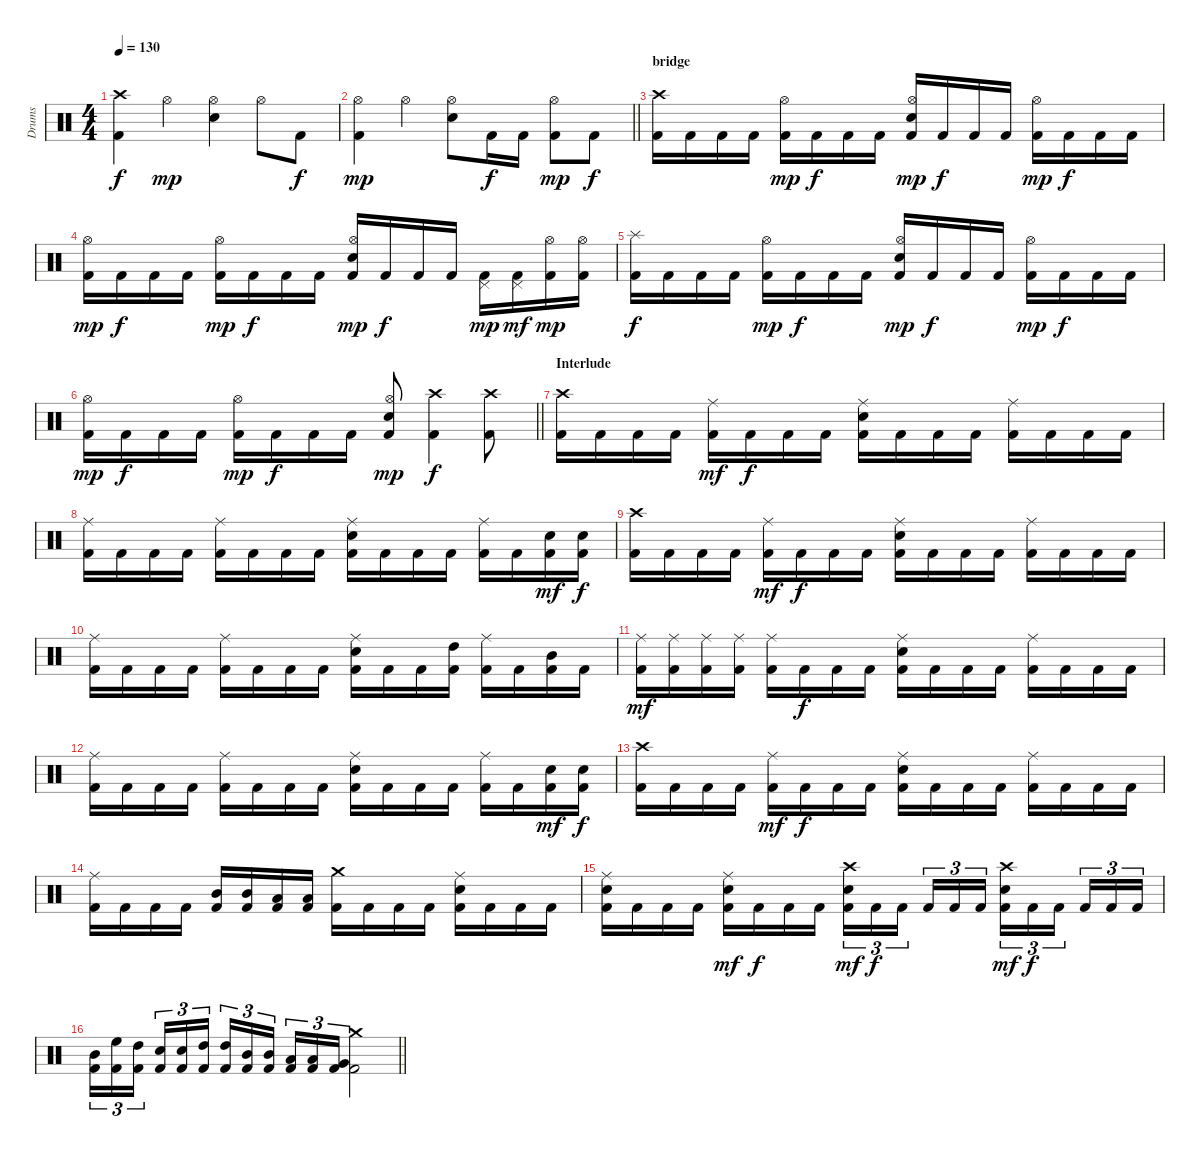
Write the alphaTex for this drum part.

\track ("Drums" "Drums") {instrument percussion}
\staff {score}
\articulation defaults
\ts (4 4)
\tempo 130
\clef neutral
\ks c
("Crash high (hit)" "Kick (hit) 2").4{dy f} "Hi-Hat (open)".4{dy mp} ("Hi-Hat (open)" "Electric Snare (hit)").4 "Hi-Hat (open)".8 "Kick (hit) 2".8{dy f} |
\barLineRight lightlight
("Hi-Hat (open)" "Kick (hit) 2").4{dy mp} "Hi-Hat (open)".4 ("Hi-Hat (open)" "Electric Snare (hit)").8 "Kick (hit) 2".16{dy f} "Kick (hit) 2".16 ("Hi-Hat (open)" "Kick (hit) 2").8{dy mp} "Kick (hit) 2".8{dy f} |
\section ("" "bridge")
("Crash high (hit)" "Kick (hit) 2").16 "Kick (hit) 2".16 "Kick (hit) 2".16 "Kick (hit) 2".16 ("Hi-Hat (open)" "Kick (hit) 2").16{dy mp} "Kick (hit) 2".16{dy f} "Kick (hit) 2".16 "Kick (hit) 2".16 ("Hi-Hat (open)" "Electric Snare (hit)" "Kick (hit) 2").16{dy mp} "Kick (hit) 2".16{dy f} "Kick (hit) 2".16 "Kick (hit) 2".16 ("Hi-Hat (open)" "Kick (hit) 2").16{dy mp} "Kick (hit) 2".16{dy f} "Kick (hit) 2".16 "Kick (hit) 2".16 |
("Hi-Hat (open)" "Kick (hit) 2").16{dy mp} "Kick (hit) 2".16{dy f} "Kick (hit) 2".16 "Kick (hit) 2".16 ("Hi-Hat (open)" "Kick (hit) 2").16{dy mp} "Kick (hit) 2".16{dy f} "Kick (hit) 2".16 "Kick (hit) 2".16 ("Hi-Hat (open)" "Electric Snare (hit)" "Kick (hit) 2").16{dy mp} "Kick (hit) 2".16{dy f} "Kick (hit) 2".16 "Kick (hit) 2".16 ("Pedal Hi-Hat (hit)" "Kick (hit) 2").16{dy mp} ("Pedal Hi-Hat (hit)" "Kick (hit) 2").16{dy mf} ("Hi-Hat (open)" "Kick (hit) 2").16{dy mp} ("Hi-Hat (open)" "Kick (hit) 2").16 |
("Splash (hit)" "Kick (hit) 2").16{dy f} "Kick (hit) 2".16 "Kick (hit) 2".16 "Kick (hit) 2".16 ("Hi-Hat (open)" "Kick (hit) 2").16{dy mp} "Kick (hit) 2".16{dy f} "Kick (hit) 2".16 "Kick (hit) 2".16 ("Hi-Hat (open)" "Electric Snare (hit)" "Kick (hit) 2").16{dy mp} "Kick (hit) 2".16{dy f} "Kick (hit) 2".16 "Kick (hit) 2".16 ("Hi-Hat (open)" "Kick (hit) 2").16{dy mp} "Kick (hit) 2".16{dy f} "Kick (hit) 2".16 "Kick (hit) 2".16 |
\barLineRight lightlight
("Hi-Hat (open)" "Kick (hit) 2").16{dy mp} "Kick (hit) 2".16{dy f} "Kick (hit) 2".16 "Kick (hit) 2".16 ("Hi-Hat (open)" "Kick (hit) 2").16{dy mp} "Kick (hit) 2".16{dy f} "Kick (hit) 2".16 "Kick (hit) 2".16 ("Hi-Hat (open)" "Electric Snare (hit)" "Kick (hit) 2").8{dy mp} ("Crash high (hit)" "Kick (hit) 2").4{dy f} ("Crash high (hit)" "Kick (hit) 2").8 |
\section ("" "Interlude")
("Crash high (hit)" "Kick (hit) 2").16 "Kick (hit) 2".16 "Kick (hit) 2".16 "Kick (hit) 2".16 ("Ride (middle)" "Kick (hit) 2").16{dy mf} "Kick (hit) 2".16{dy f} "Kick (hit) 2".16 "Kick (hit) 2".16 ("Ride (middle)" "Electric Snare (hit)" "Kick (hit) 2").16 "Kick (hit) 2".16 "Kick (hit) 2".16 "Kick (hit) 2".16 ("Ride (middle)" "Kick (hit) 2").16 "Kick (hit) 2".16 "Kick (hit) 2".16 "Kick (hit) 2".16 |
("Ride (middle)" "Kick (hit) 2").16 "Kick (hit) 2".16 "Kick (hit) 2".16 "Kick (hit) 2".16 ("Ride (middle)" "Kick (hit) 2").16 "Kick (hit) 2".16 "Kick (hit) 2".16 "Kick (hit) 2".16 ("Ride (middle)" "Electric Snare (hit)" "Kick (hit) 2").16 "Kick (hit) 2".16 "Kick (hit) 2".16 "Kick (hit) 2".16 ("Ride (middle)" "Kick (hit) 2").16 "Kick (hit) 2".16 ("Electric Snare (hit)" "Kick (hit) 2").16{dy mf} ("Electric Snare (hit)" "Kick (hit) 2").16{dy f} |
("Crash high (hit)" "Kick (hit) 2").16 "Kick (hit) 2".16 "Kick (hit) 2".16 "Kick (hit) 2".16 ("Ride (middle)" "Kick (hit) 2").16{dy mf} "Kick (hit) 2".16{dy f} "Kick (hit) 2".16 "Kick (hit) 2".16 ("Ride (middle)" "Electric Snare (hit)" "Kick (hit) 2").16 "Kick (hit) 2".16 "Kick (hit) 2".16 "Kick (hit) 2".16 ("Ride (middle)" "Kick (hit) 2").16 "Kick (hit) 2".16 "Kick (hit) 2".16 "Kick (hit) 2".16 |
("Ride (middle)" "Kick (hit) 2").16 "Kick (hit) 2".16 "Kick (hit) 2".16 "Kick (hit) 2".16 ("Ride (middle)" "Kick (hit) 2").16 "Kick (hit) 2".16 "Kick (hit) 2".16 "Kick (hit) 2".16 ("Ride (middle)" "Electric Snare (hit)" "Kick (hit) 2").16 "Kick (hit) 2".16 "Kick (hit) 2".16 ("High Tom (hit)" "Kick (hit) 2").16 ("Ride (middle)" "Kick (hit) 2").16 "Kick (hit) 2".16 ("Mid Tom (hit)" "Kick (hit) 2").16 "Kick (hit) 2".16 |
("Ride (middle)" "Kick (hit) 2").16{dy mf} ("Ride (middle)" "Kick (hit) 2").16 ("Ride (middle)" "Kick (hit) 2").16 ("Ride (middle)" "Kick (hit) 2").16 ("Ride (middle)" "Kick (hit) 2").16 "Kick (hit) 2".16{dy f} "Kick (hit) 2".16 "Kick (hit) 2".16 ("Ride (middle)" "Electric Snare (hit)" "Kick (hit) 2").16 "Kick (hit) 2".16 "Kick (hit) 2".16 "Kick (hit) 2".16 ("Ride (middle)" "Kick (hit) 2").16 "Kick (hit) 2".16 "Kick (hit) 2".16 "Kick (hit) 2".16 |
("Ride (middle)" "Kick (hit) 2").16 "Kick (hit) 2".16 "Kick (hit) 2".16 "Kick (hit) 2".16 ("Ride (middle)" "Kick (hit) 2").16 "Kick (hit) 2".16 "Kick (hit) 2".16 "Kick (hit) 2".16 ("Ride (middle)" "Electric Snare (hit)" "Kick (hit) 2").16 "Kick (hit) 2".16 "Kick (hit) 2".16 "Kick (hit) 2".16 ("Ride (middle)" "Kick (hit) 2").16 "Kick (hit) 2".16 ("Electric Snare (hit)" "Kick (hit) 2").16{dy mf} ("Electric Snare (hit)" "Kick (hit) 2").16{dy f} |
("Crash high (hit)" "Kick (hit) 2").16 "Kick (hit) 2".16 "Kick (hit) 2".16 "Kick (hit) 2".16 ("Ride (middle)" "Kick (hit) 2").16{dy mf} "Kick (hit) 2".16{dy f} "Kick (hit) 2".16 "Kick (hit) 2".16 ("Ride (middle)" "Electric Snare (hit)" "Kick (hit) 2").16 "Kick (hit) 2".16 "Kick (hit) 2".16 "Kick (hit) 2".16 ("Ride (middle)" "Kick (hit) 2").16 "Kick (hit) 2".16 "Kick (hit) 2".16 "Kick (hit) 2".16 |
("Ride (middle)" "Kick (hit) 2").16 "Kick (hit) 2".16 "Kick (hit) 2".16 "Kick (hit) 2".16 ("Mid Tom (hit)" "Kick (hit) 2").16 ("Mid Tom (hit)" "Kick (hit) 2").16 ("Low Tom (hit)" "Kick (hit) 2").16 ("Low Tom (hit)" "Kick (hit) 2").16 ("Crash medium (hit)" "Kick (hit) 2").16 "Kick (hit) 2".16 "Kick (hit) 2".16 "Kick (hit) 2".16 ("Ride (middle)" "Electric Snare (hit)" "Kick (hit) 2").16 "Kick (hit) 2".16 "Kick (hit) 2".16 "Kick (hit) 2".16 |
("Ride (middle)" "Electric Snare (hit)" "Kick (hit) 2").16 "Kick (hit) 2".16 "Kick (hit) 2".16 "Kick (hit) 2".16 ("Ride (middle)" "Electric Snare (hit)" "Kick (hit) 2").16{dy mf} "Kick (hit) 2".16{dy f} "Kick (hit) 2".16 "Kick (hit) 2".16 ("Crash high (hit)" "Electric Snare (hit)" "Kick (hit) 2").16{tu (3 2) dy mf} "Kick (hit) 2".16{tu (3 2) dy f} "Kick (hit) 2".16{tu (3 2) beam splitsecondary} "Kick (hit) 2".16{tu (3 2)} "Kick (hit) 2".16{tu (3 2)} "Kick (hit) 2".16{tu (3 2)} ("Crash high (hit)" "Electric Snare (hit)" "Kick (hit) 2").16{tu (3 2) dy mf} "Kick (hit) 2".16{tu (3 2) dy f} "Kick (hit) 2".16{tu (3 2) beam splitsecondary} "Kick (hit) 2".16{tu (3 2)} "Kick (hit) 2".16{tu (3 2)} "Kick (hit) 2".16{tu (3 2)} |
\barLineRight lightlight
("Mid Tom (hit)" "Kick (hit) 2").16{tu (3 2)} ("High Floor Tom (hit)" "Kick (hit) 2").16{tu (3 2)} ("High Tom (hit)" "Kick (hit) 2").16{tu (3 2) beam splitsecondary} ("Electric Snare (hit)" "Kick (hit) 2").16{tu (3 2)} ("Electric Snare (hit)" "Kick (hit) 2").16{tu (3 2)} ("High Tom (hit)" "Kick (hit) 2").16{tu (3 2)} ("High Tom (hit)" "Kick (hit) 2").16{tu (3 2)} ("Mid Tom (hit)" "Kick (hit) 2").16{tu (3 2)} ("Mid Tom (hit)" "Kick (hit) 2").16{tu (3 2) beam splitsecondary} ("Low Tom (hit)" "Kick (hit) 2").16{tu (3 2)} ("Low Tom (hit)" "Kick (hit) 2").16{tu (3 2)} ("Very Low Tom (hit)" "Kick (hit) 2").16{tu (3 2)} ("Crash medium (hit)" "Kick (hit) 2").2
